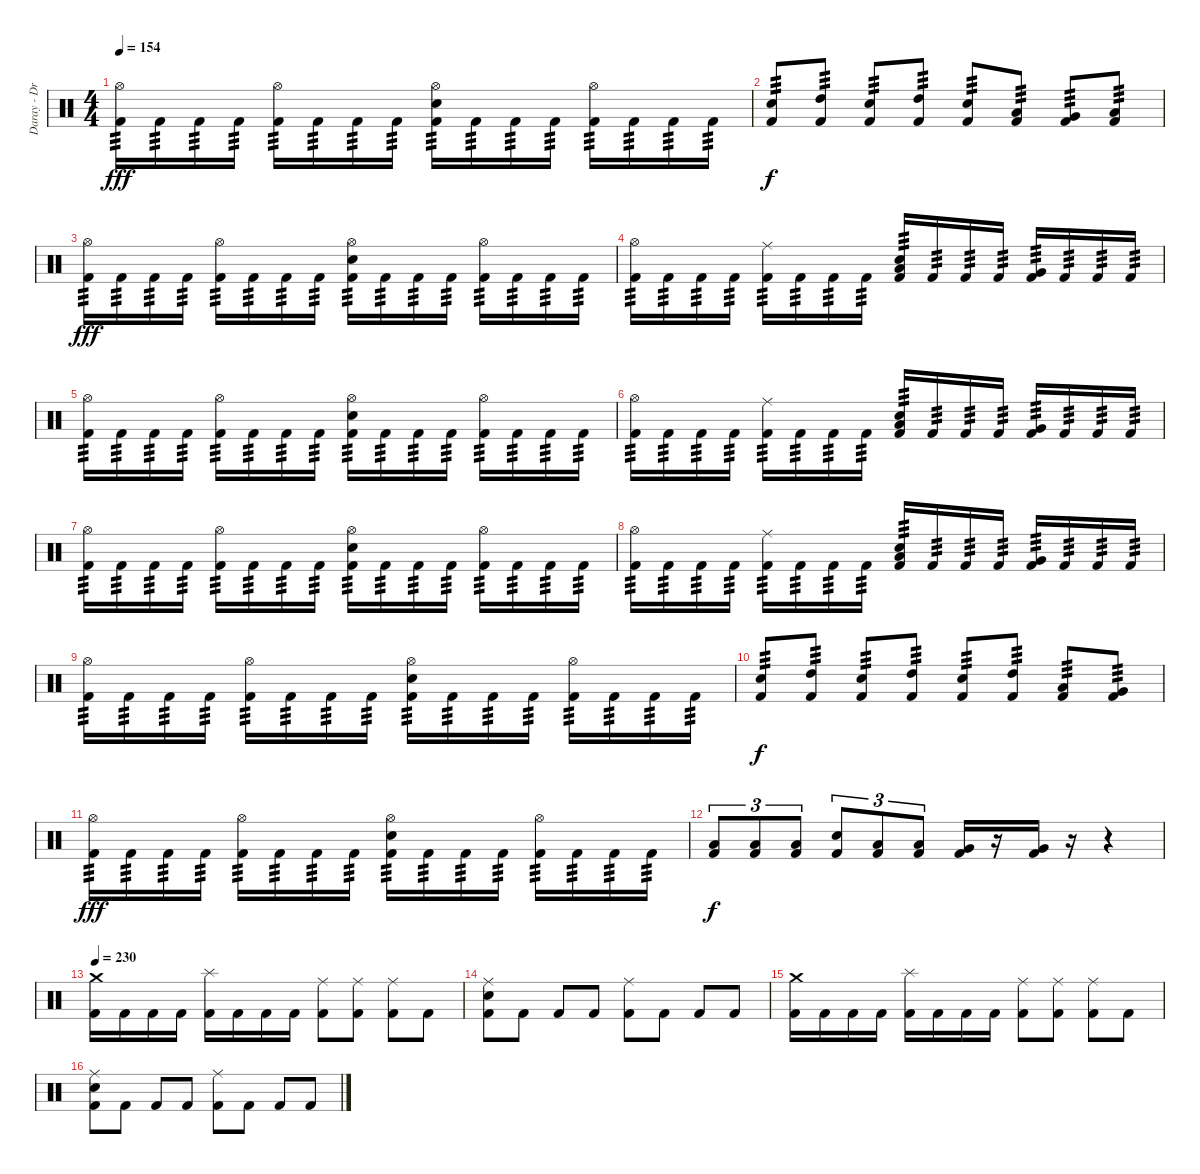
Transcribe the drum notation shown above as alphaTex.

\track ("Daray - Drums" "Daray - Dr") {instrument percussion}
\staff {score}
\articulation defaults
\ts (4 4)
\tempo 154
\clef neutral
\ks c
("Hi-Hat (open)" "Kick (hit) 2").16{tp 3 dy fff} "Kick (hit) 2".16{tp 3} "Kick (hit) 2".16{tp 3} "Kick (hit) 2".16{tp 3} ("Hi-Hat (open)" "Kick (hit) 2").16{tp 3} "Kick (hit) 2".16{tp 3} "Kick (hit) 2".16{tp 3} "Kick (hit) 2".16{tp 3} ("Hi-Hat (open)" "Electric Snare (hit)" "Kick (hit) 2").16{tp 3} "Kick (hit) 2".16{tp 3} "Kick (hit) 2".16{tp 3} "Kick (hit) 2".16{tp 3} ("Hi-Hat (open)" "Kick (hit) 2").16{tp 3} "Kick (hit) 2".16{tp 3} "Kick (hit) 2".16{tp 3} "Kick (hit) 2".16{tp 3} |
("Electric Snare (hit)" "Kick (hit) 2").8{tp 3 dy f} ("High Tom (hit)" "Kick (hit) 2").8{tp 3} ("Electric Snare (hit)" "Kick (hit) 2").8{tp 3} ("High Tom (hit)" "Kick (hit) 2").8{tp 3} ("Electric Snare (hit)" "Kick (hit) 2").8{tp 3} ("Low Tom (hit)" "Kick (hit) 2").8{tp 3} ("Very Low Tom (hit)" "Kick (hit) 2").8{tp 3} ("Low Floor Tom (hit)" "Kick (hit) 2").8{tp 3} |
("Hi-Hat (open)" "Kick (hit) 2").16{tp 3 dy fff} "Kick (hit) 2".16{tp 3} "Kick (hit) 2".16{tp 3} "Kick (hit) 2".16{tp 3} ("Hi-Hat (open)" "Kick (hit) 2").16{tp 3} "Kick (hit) 2".16{tp 3} "Kick (hit) 2".16{tp 3} "Kick (hit) 2".16{tp 3} ("Hi-Hat (open)" "Electric Snare (hit)" "Kick (hit) 2").16{tp 3} "Kick (hit) 2".16{tp 3} "Kick (hit) 2".16{tp 3} "Kick (hit) 2".16{tp 3} ("Hi-Hat (open)" "Kick (hit) 2").16{tp 3} "Kick (hit) 2".16{tp 3} "Kick (hit) 2".16{tp 3} "Kick (hit) 2".16{tp 3} |
("Hi-Hat (open)" "Kick (hit) 2").16{tp 3} "Kick (hit) 2".16{tp 3} "Kick (hit) 2".16{tp 3} "Kick (hit) 2".16{tp 3} ("Ride (middle)" "Kick (hit) 2").16{tp 3} "Kick (hit) 2".16{tp 3} "Kick (hit) 2".16{tp 3} "Kick (hit) 2".16{tp 3} ("Electric Snare (hit)" "Low Floor Tom (hit)" "Kick (hit) 2").16{tp 3} "Kick (hit) 2".16{tp 3} "Kick (hit) 2".16{tp 3} "Kick (hit) 2".16{tp 3} ("Very Low Tom (hit)" "Kick (hit) 2").16{tp 3} "Kick (hit) 2".16{tp 3} "Kick (hit) 2".16{tp 3} "Kick (hit) 2".16{tp 3} |
("Hi-Hat (open)" "Kick (hit) 2").16{tp 3} "Kick (hit) 2".16{tp 3} "Kick (hit) 2".16{tp 3} "Kick (hit) 2".16{tp 3} ("Hi-Hat (open)" "Kick (hit) 2").16{tp 3} "Kick (hit) 2".16{tp 3} "Kick (hit) 2".16{tp 3} "Kick (hit) 2".16{tp 3} ("Hi-Hat (open)" "Electric Snare (hit)" "Kick (hit) 2").16{tp 3} "Kick (hit) 2".16{tp 3} "Kick (hit) 2".16{tp 3} "Kick (hit) 2".16{tp 3} ("Hi-Hat (open)" "Kick (hit) 2").16{tp 3} "Kick (hit) 2".16{tp 3} "Kick (hit) 2".16{tp 3} "Kick (hit) 2".16{tp 3} |
("Hi-Hat (open)" "Kick (hit) 2").16{tp 3} "Kick (hit) 2".16{tp 3} "Kick (hit) 2".16{tp 3} "Kick (hit) 2".16{tp 3} ("Ride (middle)" "Kick (hit) 2").16{tp 3} "Kick (hit) 2".16{tp 3} "Kick (hit) 2".16{tp 3} "Kick (hit) 2".16{tp 3} ("Electric Snare (hit)" "Low Floor Tom (hit)" "Kick (hit) 2").16{tp 3} "Kick (hit) 2".16{tp 3} "Kick (hit) 2".16{tp 3} "Kick (hit) 2".16{tp 3} ("Very Low Tom (hit)" "Kick (hit) 2").16{tp 3} "Kick (hit) 2".16{tp 3} "Kick (hit) 2".16{tp 3} "Kick (hit) 2".16{tp 3} |
("Hi-Hat (open)" "Kick (hit) 2").16{tp 3} "Kick (hit) 2".16{tp 3} "Kick (hit) 2".16{tp 3} "Kick (hit) 2".16{tp 3} ("Hi-Hat (open)" "Kick (hit) 2").16{tp 3} "Kick (hit) 2".16{tp 3} "Kick (hit) 2".16{tp 3} "Kick (hit) 2".16{tp 3} ("Hi-Hat (open)" "Electric Snare (hit)" "Kick (hit) 2").16{tp 3} "Kick (hit) 2".16{tp 3} "Kick (hit) 2".16{tp 3} "Kick (hit) 2".16{tp 3} ("Hi-Hat (open)" "Kick (hit) 2").16{tp 3} "Kick (hit) 2".16{tp 3} "Kick (hit) 2".16{tp 3} "Kick (hit) 2".16{tp 3} |
("Hi-Hat (open)" "Kick (hit) 2").16{tp 3} "Kick (hit) 2".16{tp 3} "Kick (hit) 2".16{tp 3} "Kick (hit) 2".16{tp 3} ("Ride (middle)" "Kick (hit) 2").16{tp 3} "Kick (hit) 2".16{tp 3} "Kick (hit) 2".16{tp 3} "Kick (hit) 2".16{tp 3} ("Electric Snare (hit)" "Low Floor Tom (hit)" "Kick (hit) 2").16{tp 3} "Kick (hit) 2".16{tp 3} "Kick (hit) 2".16{tp 3} "Kick (hit) 2".16{tp 3} ("Very Low Tom (hit)" "Kick (hit) 2").16{tp 3} "Kick (hit) 2".16{tp 3} "Kick (hit) 2".16{tp 3} "Kick (hit) 2".16{tp 3} |
("Hi-Hat (open)" "Kick (hit) 2").16{tp 3} "Kick (hit) 2".16{tp 3} "Kick (hit) 2".16{tp 3} "Kick (hit) 2".16{tp 3} ("Hi-Hat (open)" "Kick (hit) 2").16{tp 3} "Kick (hit) 2".16{tp 3} "Kick (hit) 2".16{tp 3} "Kick (hit) 2".16{tp 3} ("Hi-Hat (open)" "Electric Snare (hit)" "Kick (hit) 2").16{tp 3} "Kick (hit) 2".16{tp 3} "Kick (hit) 2".16{tp 3} "Kick (hit) 2".16{tp 3} ("Hi-Hat (open)" "Kick (hit) 2").16{tp 3} "Kick (hit) 2".16{tp 3} "Kick (hit) 2".16{tp 3} "Kick (hit) 2".16{tp 3} |
("Electric Snare (hit)" "Kick (hit) 2").8{tp 3 dy f} ("High Tom (hit)" "Kick (hit) 2").8{tp 3} ("Electric Snare (hit)" "Kick (hit) 2").8{tp 3} ("High Tom (hit)" "Kick (hit) 2").8{tp 3} ("Electric Snare (hit)" "Kick (hit) 2").8{tp 3} ("High Tom (hit)" "Kick (hit) 2").8{tp 3} ("Low Tom (hit)" "Kick (hit) 2").8{tp 3} ("Very Low Tom (hit)" "Kick (hit) 2").8{tp 3} |
("Hi-Hat (open)" "Kick (hit) 2").16{tp 3 dy fff} "Kick (hit) 2".16{tp 3} "Kick (hit) 2".16{tp 3} "Kick (hit) 2".16{tp 3} ("Hi-Hat (open)" "Kick (hit) 2").16{tp 3} "Kick (hit) 2".16{tp 3} "Kick (hit) 2".16{tp 3} "Kick (hit) 2".16{tp 3} ("Hi-Hat (open)" "Electric Snare (hit)" "Kick (hit) 2").16{tp 3} "Kick (hit) 2".16{tp 3} "Kick (hit) 2".16{tp 3} "Kick (hit) 2".16{tp 3} ("Hi-Hat (open)" "Kick (hit) 2").16{tp 3} "Kick (hit) 2".16{tp 3} "Kick (hit) 2".16{tp 3} "Kick (hit) 2".16{tp 3} |
("Low Tom (hit)" "Kick (hit) 2").8{tu (3 2) dy f} ("Low Tom (hit)" "Kick (hit) 2").8{tu (3 2)} ("Low Tom (hit)" "Kick (hit) 2").8{tu (3 2)} ("Electric Snare (hit)" "Kick (hit) 2").8{tu (3 2)} ("Low Tom (hit)" "Kick (hit) 2").8{tu (3 2)} ("Low Tom (hit)" "Kick (hit) 2").8{tu (3 2)} ("Very Low Tom (hit)" "Kick (hit) 2").16 r.16 ("Very Low Tom (hit)" "Kick (hit) 2").16 r.16 r.4 |
\tempo 230
("Crash medium (hit)" "Kick (hit) 2").16 "Kick (hit) 2".16 "Kick (hit) 2".16 "Kick (hit) 2".16 ("Splash (hit)" "Kick (hit) 2").16 "Kick (hit) 2".16 "Kick (hit) 2".16 "Kick (hit) 2".16 ("Ride (middle)" "Kick (hit) 2").8 ("Ride (middle)" "Kick (hit) 2").8 ("Ride (middle)" "Kick (hit) 2").8 "Kick (hit) 2".8 |
("Ride (middle)" "Electric Snare (hit)" "Kick (hit) 2").8 "Kick (hit) 2".8 "Kick (hit) 2".8 "Kick (hit) 2".8 ("Ride (middle)" "Kick (hit) 2").8 "Kick (hit) 2".8 "Kick (hit) 2".8 "Kick (hit) 2".8 |
("Crash medium (hit)" "Kick (hit) 2").16 "Kick (hit) 2".16 "Kick (hit) 2".16 "Kick (hit) 2".16 ("Splash (hit)" "Kick (hit) 2").16 "Kick (hit) 2".16 "Kick (hit) 2".16 "Kick (hit) 2".16 ("Ride (middle)" "Kick (hit) 2").8 ("Ride (middle)" "Kick (hit) 2").8 ("Ride (middle)" "Kick (hit) 2").8 "Kick (hit) 2".8 |
("Ride (middle)" "Electric Snare (hit)" "Kick (hit) 2").8 "Kick (hit) 2".8 "Kick (hit) 2".8 "Kick (hit) 2".8 ("Ride (middle)" "Kick (hit) 2").8 "Kick (hit) 2".8 "Kick (hit) 2".8 "Kick (hit) 2".8
